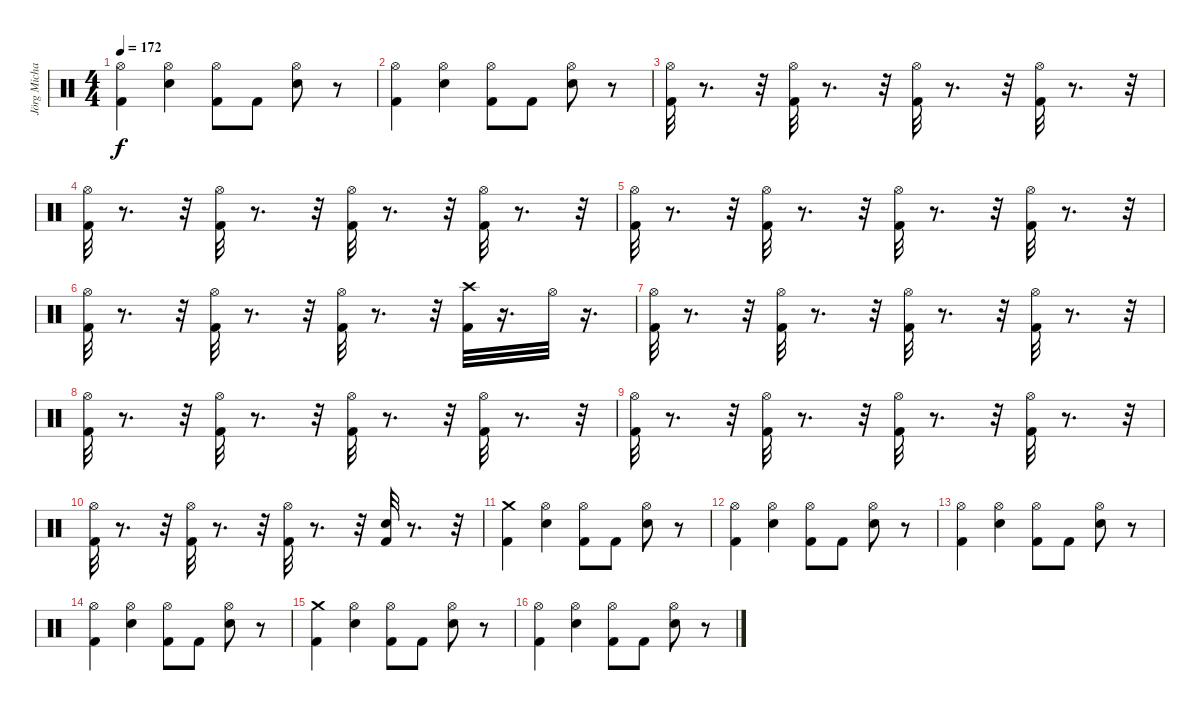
\track ("Jörg Michael" "Jörg Micha") {instrument percussion}
\staff {score}
\articulation defaults
\ts (4 4)
\tempo 172
\clef neutral
\ks c
("Hi-Hat (open)" "Kick (hit) 2").4{dy f} ("Hi-Hat (open)" "Electric Snare (hit)").4 ("Hi-Hat (open)" "Kick (hit) 2").8 "Kick (hit) 2".8 ("Hi-Hat (open)" "Electric Snare (hit)").8 r.8 |
("Hi-Hat (open)" "Kick (hit) 2").4 ("Hi-Hat (open)" "Electric Snare (hit)").4 ("Hi-Hat (open)" "Kick (hit) 2").8 "Kick (hit) 2".8 ("Hi-Hat (open)" "Electric Snare (hit)").8 r.8 |
("Hi-Hat (open)" "Kick (hit) 2").32 r.8{d} r.32 ("Hi-Hat (open)" "Kick (hit) 2").32 r.8{d} r.32 ("Hi-Hat (open)" "Kick (hit) 2").32 r.8{d} r.32 ("Hi-Hat (open)" "Kick (hit) 2").32 r.8{d} r.32 |
("Hi-Hat (open)" "Kick (hit) 2").32 r.8{d} r.32 ("Hi-Hat (open)" "Kick (hit) 2").32 r.8{d} r.32 ("Hi-Hat (open)" "Kick (hit) 2").32 r.8{d} r.32 ("Hi-Hat (open)" "Kick (hit) 2").32 r.8{d} r.32 |
("Hi-Hat (open)" "Kick (hit) 2").32 r.8{d} r.32 ("Hi-Hat (open)" "Kick (hit) 2").32 r.8{d} r.32 ("Hi-Hat (open)" "Kick (hit) 2").32 r.8{d} r.32 ("Hi-Hat (open)" "Kick (hit) 2").32 r.8{d} r.32 |
("Hi-Hat (open)" "Kick (hit) 2").32 r.8{d} r.32 ("Hi-Hat (open)" "Kick (hit) 2").32 r.8{d} r.32 ("Hi-Hat (open)" "Kick (hit) 2").32 r.8{d} r.32 ("Crash high (hit)" "Kick (hit) 2").32 r.16{d} "Hi-Hat (open)".32 r.16{d} |
("Hi-Hat (open)" "Kick (hit) 2").32 r.8{d} r.32 ("Hi-Hat (open)" "Kick (hit) 2").32 r.8{d} r.32 ("Hi-Hat (open)" "Kick (hit) 2").32 r.8{d} r.32 ("Hi-Hat (open)" "Kick (hit) 2").32 r.8{d} r.32 |
("Hi-Hat (open)" "Kick (hit) 2").32 r.8{d} r.32 ("Hi-Hat (open)" "Kick (hit) 2").32 r.8{d} r.32 ("Hi-Hat (open)" "Kick (hit) 2").32 r.8{d} r.32 ("Hi-Hat (open)" "Kick (hit) 2").32 r.8{d} r.32 |
("Hi-Hat (open)" "Kick (hit) 2").32 r.8{d} r.32 ("Hi-Hat (open)" "Kick (hit) 2").32 r.8{d} r.32 ("Hi-Hat (open)" "Kick (hit) 2").32 r.8{d} r.32 ("Hi-Hat (open)" "Kick (hit) 2").32 r.8{d} r.32 |
("Hi-Hat (open)" "Kick (hit) 2").32 r.8{d} r.32 ("Hi-Hat (open)" "Kick (hit) 2").32 r.8{d} r.32 ("Hi-Hat (open)" "Kick (hit) 2").32 r.8{d} r.32 ("Electric Snare (hit)" "Kick (hit) 2").32 r.8{d} r.32 |
("Crash medium (hit)" "Kick (hit) 2").4 ("Hi-Hat (open)" "Electric Snare (hit)").4 ("Hi-Hat (open)" "Kick (hit) 2").8 "Kick (hit) 2".8 ("Hi-Hat (open)" "Electric Snare (hit)").8 r.8 |
("Hi-Hat (open)" "Kick (hit) 2").4 ("Hi-Hat (open)" "Electric Snare (hit)").4 ("Hi-Hat (open)" "Kick (hit) 2").8 "Kick (hit) 2".8 ("Hi-Hat (open)" "Electric Snare (hit)").8 r.8 |
("Hi-Hat (open)" "Kick (hit) 2").4 ("Hi-Hat (open)" "Electric Snare (hit)").4 ("Hi-Hat (open)" "Kick (hit) 2").8 "Kick (hit) 2".8 ("Hi-Hat (open)" "Electric Snare (hit)").8 r.8 |
("Hi-Hat (open)" "Kick (hit) 2").4 ("Hi-Hat (open)" "Electric Snare (hit)").4 ("Hi-Hat (open)" "Kick (hit) 2").8 "Kick (hit) 2".8 ("Hi-Hat (open)" "Electric Snare (hit)").8 r.8 |
("Crash medium (hit)" "Kick (hit) 2").4 ("Hi-Hat (open)" "Electric Snare (hit)").4 ("Hi-Hat (open)" "Kick (hit) 2").8 "Kick (hit) 2".8 ("Hi-Hat (open)" "Electric Snare (hit)").8 r.8 |
("Hi-Hat (open)" "Kick (hit) 2").4 ("Hi-Hat (open)" "Electric Snare (hit)").4 ("Hi-Hat (open)" "Kick (hit) 2").8 "Kick (hit) 2".8 ("Hi-Hat (open)" "Electric Snare (hit)").8 r.8
